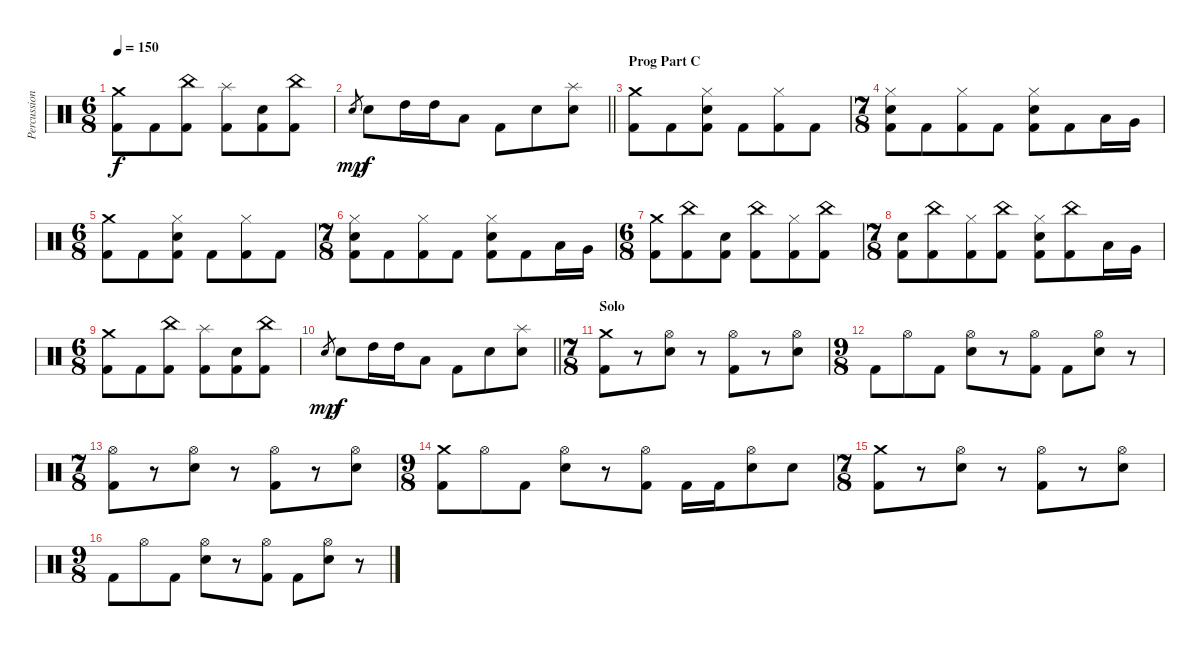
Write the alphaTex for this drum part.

\track ("Percussions" "Percussion") {instrument percussion}
\staff {score}
\articulation defaults
\ts (6 8)
\tempo 150
\clef neutral
\ks c
("Crash medium (hit)" "Kick (hit) 2").8{dy f} "Kick (hit) 2".8 ("China (hit)" "Kick (hit) 2").8 ("Splash (hit)" "Kick (hit) 2").8 ("Snare (hit) 2" "Kick (hit) 2").8 ("China (hit)" "Kick (hit) 2").8 |
\barLineRight lightlight "Snare (hit) 2".8{gr dy mp} "Snare (hit) 2".8{dy f} "High Tom (hit)".16 "High Tom (hit)".16 "Low Tom (hit)".8 "Kick (hit) 2".8 "Snare (hit) 2".8
("Splash (hit)" "Snare (hit) 2").8 |
\section ("" "Prog Part C")
("Crash medium (hit)" "Kick (hit) 2").8 "Kick (hit) 2".8 ("Hi-Hat (closed)" "Snare (hit) 2" "Kick (hit) 2").8 "Kick (hit) 2".8 ("Hi-Hat (closed)" "Kick (hit) 2").8 "Kick (hit) 2".8 |
\ts (7 8)
("Hi-Hat (closed)" "Snare (hit) 2" "Kick (hit) 2").8 "Kick (hit) 2".8 ("Hi-Hat (closed)" "Kick (hit) 2").8 "Kick (hit) 2".8 ("Hi-Hat (closed)" "Snare (hit) 2" "Kick (hit) 2").8 "Kick (hit) 2".8 "Low Tom (hit)".16 "Very Low Tom (hit)".16 |
\ts (6 8)
("Crash medium (hit)" "Kick (hit) 2").8 "Kick (hit) 2".8 ("Hi-Hat (closed)" "Snare (hit) 2" "Kick (hit) 2").8 "Kick (hit) 2".8 ("Hi-Hat (closed)" "Kick (hit) 2").8 "Kick (hit) 2".8 |
\ts (7 8)
("Hi-Hat (closed)" "Snare (hit) 2" "Kick (hit) 2").8 "Kick (hit) 2".8 ("Hi-Hat (closed)" "Kick (hit) 2").8 "Kick (hit) 2".8 ("Hi-Hat (closed)" "Snare (hit) 2" "Kick (hit) 2").8 "Kick (hit) 2".8 "Low Tom (hit)".16 "Very Low Tom (hit)".16 |
\ts (6 8)
("Crash medium (hit)" "Kick (hit) 2").8 ("China (hit)" "Kick (hit) 2").8 ("Snare (hit) 2" "Kick (hit) 2").8 ("China (hit)" "Kick (hit) 2").8 ("Hi-Hat (closed)" "Kick (hit) 2").8 ("China (hit)" "Kick (hit) 2").8 |
\ts (7 8)
("Snare (hit) 2" "Kick (hit) 2").8 ("China (hit)" "Kick (hit) 2").8 ("Hi-Hat (closed)" "Kick (hit) 2").8 ("China (hit)" "Kick (hit) 2").8 ("Hi-Hat (closed)" "Snare (hit) 2" "Kick (hit) 2").8 ("China (hit)" "Kick (hit) 2").8 "Low Tom (hit)".16 "Very Low Tom (hit)".16 |
\ts (6 8)
("Crash medium (hit)" "Kick (hit) 2").8 "Kick (hit) 2".8 ("China (hit)" "Kick (hit) 2").8 ("Splash (hit)" "Kick (hit) 2").8 ("Snare (hit) 2" "Kick (hit) 2").8 ("China (hit)" "Kick (hit) 2").8 |
\barLineRight lightlight "Snare (hit) 2".8{gr dy mp} "Snare (hit) 2".8{dy f} "High Tom (hit)".16 "High Tom (hit)".16 "Low Tom (hit)".8 "Kick (hit) 2".8 "Snare (hit) 2".8
("Splash (hit)" "Snare (hit) 2").8 |
\ts (7 8)
\section ("" "Solo")
("Crash medium (hit)" "Kick (hit) 2").8 r.8 ("Hi-Hat (open)" "Snare (hit) 2").8 r.8 ("Hi-Hat (open)" "Kick (hit) 2").8 r.8 ("Hi-Hat (open)" "Snare (hit) 2").8 |
\ts (9 8)
"Kick (hit) 2".8 "Hi-Hat (open)".8 "Kick (hit) 2".8 ("Hi-Hat (open)" "Snare (hit) 2").8 r.8 ("Hi-Hat (open)" "Kick (hit) 2").8 "Kick (hit) 2".8 ("Hi-Hat (open)" "Snare (hit) 2").8 r.8 |
\ts (7 8)
("Hi-Hat (open)" "Kick (hit) 2").8 r.8 ("Hi-Hat (open)" "Snare (hit) 2").8 r.8 ("Hi-Hat (open)" "Kick (hit) 2").8 r.8 ("Hi-Hat (open)" "Snare (hit) 2").8 |
\ts (9 8)
("Crash medium (hit)" "Kick (hit) 2").8 "Hi-Hat (open)".8 "Kick (hit) 2".8 ("Hi-Hat (open)" "Snare (hit) 2").8 r.8 ("Hi-Hat (open)" "Kick (hit) 2").8 "Kick (hit) 2".16 "Kick (hit) 2".16 ("Hi-Hat (open)" "Snare (hit) 2").8 "Snare (hit) 2".8 |
\ts (7 8)
("Crash medium (hit)" "Kick (hit) 2").8 r.8 ("Hi-Hat (open)" "Snare (hit) 2").8 r.8 ("Hi-Hat (open)" "Kick (hit) 2").8 r.8 ("Hi-Hat (open)" "Snare (hit) 2").8 |
\ts (9 8)
"Kick (hit) 2".8 "Hi-Hat (open)".8 "Kick (hit) 2".8 ("Hi-Hat (open)" "Snare (hit) 2").8 r.8 ("Hi-Hat (open)" "Kick (hit) 2").8 "Kick (hit) 2".8 ("Hi-Hat (open)" "Snare (hit) 2").8 r.8
